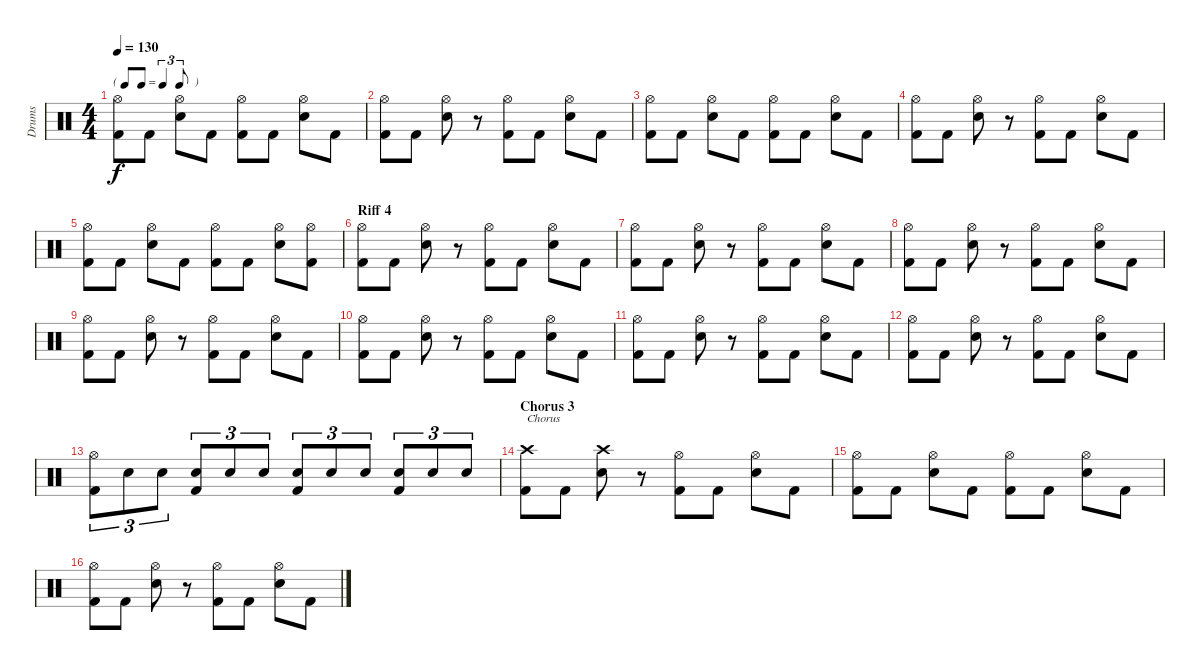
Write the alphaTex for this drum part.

\track ("Drums" "Drums") {instrument percussion}
\staff {score}
\articulation defaults
\ts (4 4)
\tf triplet8th
\tempo 130
\clef neutral
\ks c
("Hi-Hat (open)" "Kick (hit) 2").8{dy f} "Kick (hit) 2".8 ("Hi-Hat (open)" "Electric Snare (hit)").8 "Kick (hit) 2".8 ("Hi-Hat (open)" "Kick (hit) 2").8 "Kick (hit) 2".8 ("Hi-Hat (open)" "Electric Snare (hit)").8 "Kick (hit) 2".8 |
("Hi-Hat (open)" "Kick (hit) 2").8 "Kick (hit) 2".8 ("Hi-Hat (open)" "Electric Snare (hit)").8 r.8 ("Hi-Hat (open)" "Kick (hit) 2").8 "Kick (hit) 2".8 ("Hi-Hat (open)" "Electric Snare (hit)").8 "Kick (hit) 2".8 |
("Hi-Hat (open)" "Kick (hit) 2").8 "Kick (hit) 2".8 ("Hi-Hat (open)" "Electric Snare (hit)").8 "Kick (hit) 2".8 ("Hi-Hat (open)" "Kick (hit) 2").8 "Kick (hit) 2".8 ("Hi-Hat (open)" "Electric Snare (hit)").8 "Kick (hit) 2".8 |
("Hi-Hat (open)" "Kick (hit) 2").8 "Kick (hit) 2".8 ("Hi-Hat (open)" "Electric Snare (hit)").8 r.8 ("Hi-Hat (open)" "Kick (hit) 2").8 "Kick (hit) 2".8 ("Hi-Hat (open)" "Electric Snare (hit)").8 "Kick (hit) 2".8 |
("Hi-Hat (open)" "Kick (hit) 2").8 "Kick (hit) 2".8 ("Hi-Hat (open)" "Electric Snare (hit)").8 "Kick (hit) 2".8 ("Hi-Hat (open)" "Kick (hit) 2").8 "Kick (hit) 2".8 ("Hi-Hat (open)" "Electric Snare (hit)").8 ("Hi-Hat (open)" "Kick (hit) 2").8 |
\section ("" "Riff 4")
("Hi-Hat (open)" "Kick (hit) 2").8 "Kick (hit) 2".8 ("Hi-Hat (open)" "Electric Snare (hit)").8 r.8 ("Hi-Hat (open)" "Kick (hit) 2").8 "Kick (hit) 2".8 ("Hi-Hat (open)" "Electric Snare (hit)").8 "Kick (hit) 2".8 |
("Hi-Hat (open)" "Kick (hit) 2").8 "Kick (hit) 2".8 ("Hi-Hat (open)" "Electric Snare (hit)").8 r.8 ("Hi-Hat (open)" "Kick (hit) 2").8 "Kick (hit) 2".8 ("Hi-Hat (open)" "Electric Snare (hit)").8 "Kick (hit) 2".8 |
("Hi-Hat (open)" "Kick (hit) 2").8 "Kick (hit) 2".8 ("Hi-Hat (open)" "Electric Snare (hit)").8 r.8 ("Hi-Hat (open)" "Kick (hit) 2").8 "Kick (hit) 2".8 ("Hi-Hat (open)" "Electric Snare (hit)").8 "Kick (hit) 2".8 |
("Hi-Hat (open)" "Kick (hit) 2").8 "Kick (hit) 2".8 ("Hi-Hat (open)" "Electric Snare (hit)").8 r.8 ("Hi-Hat (open)" "Kick (hit) 2").8 "Kick (hit) 2".8 ("Hi-Hat (open)" "Electric Snare (hit)").8 "Kick (hit) 2".8 |
("Hi-Hat (open)" "Kick (hit) 2").8 "Kick (hit) 2".8 ("Hi-Hat (open)" "Electric Snare (hit)").8 r.8 ("Hi-Hat (open)" "Kick (hit) 2").8 "Kick (hit) 2".8 ("Hi-Hat (open)" "Electric Snare (hit)").8 "Kick (hit) 2".8 |
("Hi-Hat (open)" "Kick (hit) 2").8 "Kick (hit) 2".8 ("Hi-Hat (open)" "Electric Snare (hit)").8 r.8 ("Hi-Hat (open)" "Kick (hit) 2").8 "Kick (hit) 2".8 ("Hi-Hat (open)" "Electric Snare (hit)").8 "Kick (hit) 2".8 |
("Hi-Hat (open)" "Kick (hit) 2").8 "Kick (hit) 2".8 ("Hi-Hat (open)" "Electric Snare (hit)").8 r.8 ("Hi-Hat (open)" "Kick (hit) 2").8 "Kick (hit) 2".8 ("Hi-Hat (open)" "Electric Snare (hit)").8 "Kick (hit) 2".8 |
("Hi-Hat (open)" "Kick (hit) 2").8{tu (3 2)} "Electric Snare (hit)".8{tu (3 2)} "Electric Snare (hit)".8{tu (3 2)} ("Electric Snare (hit)" "Kick (hit) 2").8{tu (3 2)} "Electric Snare (hit)".8{tu (3 2)} "Electric Snare (hit)".8{tu (3 2)} ("Electric Snare (hit)" "Kick (hit) 2").8{tu (3 2)} "Electric Snare (hit)".8{tu (3 2)} "Electric Snare (hit)".8{tu (3 2)} ("Electric Snare (hit)" "Kick (hit) 2").8{tu (3 2)} "Electric Snare (hit)".8{tu (3 2)} "Electric Snare (hit)".8{tu (3 2)} |
\section ("" "Chorus 3")
("Crash high (hit)" "Kick (hit) 2").8{txt "Chorus"} "Kick (hit) 2".8 ("Crash high (hit)" "Electric Snare (hit)").8 r.8 ("Hi-Hat (open)" "Kick (hit) 2").8 "Kick (hit) 2".8 ("Hi-Hat (open)" "Electric Snare (hit)").8 "Kick (hit) 2".8 |
("Hi-Hat (open)" "Kick (hit) 2").8 "Kick (hit) 2".8 ("Hi-Hat (open)" "Electric Snare (hit)").8 "Kick (hit) 2".8 ("Hi-Hat (open)" "Kick (hit) 2").8 "Kick (hit) 2".8 ("Hi-Hat (open)" "Electric Snare (hit)").8 "Kick (hit) 2".8 |
("Hi-Hat (open)" "Kick (hit) 2").8 "Kick (hit) 2".8 ("Hi-Hat (open)" "Electric Snare (hit)").8 r.8 ("Hi-Hat (open)" "Kick (hit) 2").8 "Kick (hit) 2".8 ("Hi-Hat (open)" "Electric Snare (hit)").8 "Kick (hit) 2".8
